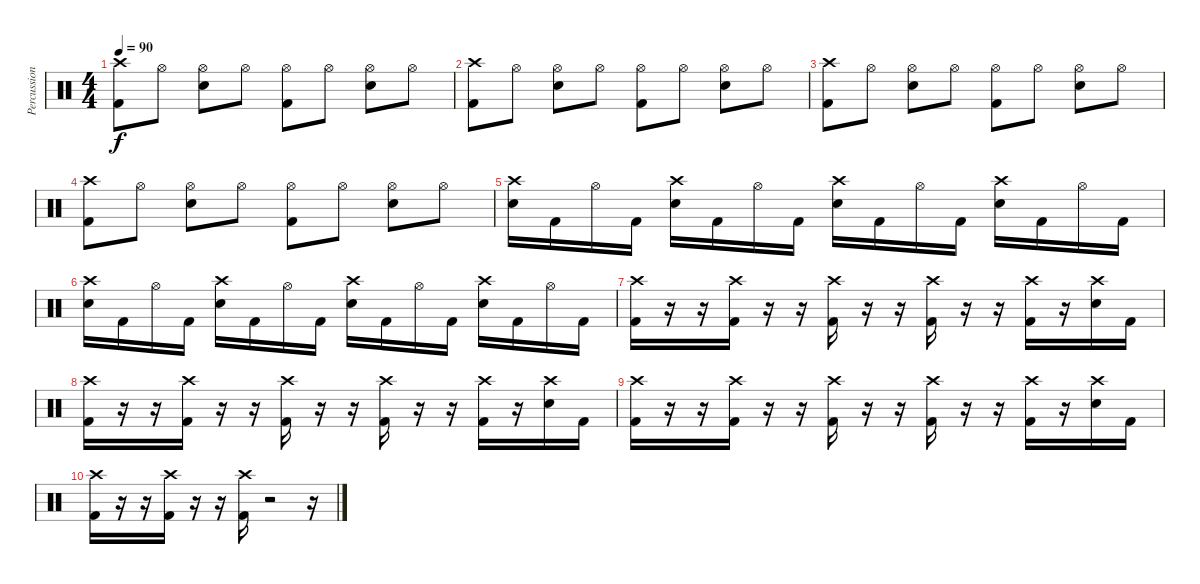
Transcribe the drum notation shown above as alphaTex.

\track ("Percussion" "Percussion") {instrument percussion}
\staff {score}
\articulation defaults
\ts (4 4)
\tempo 90
\clef neutral
\ks c
("Crash high (hit)" "Kick (hit) 2").8{dy f} "Hi-Hat (open)".8 ("Hi-Hat (open)" "Snare (hit) 2").8 "Hi-Hat (open)".8 ("Hi-Hat (open)" "Kick (hit) 2").8 "Hi-Hat (open)".8 ("Hi-Hat (open)" "Snare (hit) 2").8 "Hi-Hat (open)".8 |
("Crash high (hit)" "Kick (hit) 2").8 "Hi-Hat (open)".8 ("Hi-Hat (open)" "Snare (hit) 2").8 "Hi-Hat (open)".8 ("Hi-Hat (open)" "Kick (hit) 2").8 "Hi-Hat (open)".8 ("Hi-Hat (open)" "Snare (hit) 2").8 "Hi-Hat (open)".8 |
("Crash high (hit)" "Kick (hit) 2").8 "Hi-Hat (open)".8 ("Hi-Hat (open)" "Snare (hit) 2").8 "Hi-Hat (open)".8 ("Hi-Hat (open)" "Kick (hit) 2").8 "Hi-Hat (open)".8 ("Hi-Hat (open)" "Snare (hit) 2").8 "Hi-Hat (open)".8 |
("Crash high (hit)" "Kick (hit) 2").8 "Hi-Hat (open)".8 ("Hi-Hat (open)" "Snare (hit) 2").8 "Hi-Hat (open)".8 ("Hi-Hat (open)" "Kick (hit) 2").8 "Hi-Hat (open)".8 ("Hi-Hat (open)" "Snare (hit) 2").8 "Hi-Hat (open)".8 |
("Crash high (hit)" "Snare (hit) 2").16 "Kick (hit) 2".16 "Hi-Hat (open)".16 "Kick (hit) 2".16 ("Crash high (hit)" "Snare (hit) 2").16 "Kick (hit) 2".16 "Hi-Hat (open)".16 "Kick (hit) 2".16 ("Crash high (hit)" "Snare (hit) 2").16 "Kick (hit) 2".16 "Hi-Hat (open)".16 "Kick (hit) 2".16 ("Crash high (hit)" "Snare (hit) 2").16 "Kick (hit) 2".16 "Hi-Hat (open)".16 "Kick (hit) 2".16 |
("Crash high (hit)" "Snare (hit) 2").16 "Kick (hit) 2".16 "Hi-Hat (open)".16 "Kick (hit) 2".16 ("Crash high (hit)" "Snare (hit) 2").16 "Kick (hit) 2".16 "Hi-Hat (open)".16 "Kick (hit) 2".16 ("Crash high (hit)" "Snare (hit) 2").16 "Kick (hit) 2".16 "Hi-Hat (open)".16 "Kick (hit) 2".16 ("Crash high (hit)" "Snare (hit) 2").16 "Kick (hit) 2".16 "Hi-Hat (open)".16 "Kick (hit) 2".16 |
("Crash high (hit)" "Kick (hit) 2").16 r.16 r.16 ("Crash high (hit)" "Kick (hit) 2").16 r.16 r.16 ("Crash high (hit)" "Kick (hit) 2").16 r.16 r.16 ("Crash high (hit)" "Kick (hit) 2").16 r.16 r.16 ("Crash high (hit)" "Kick (hit) 2").16 r.16 ("Crash high (hit)" "Snare (hit) 2").16 "Kick (hit) 2".16 |
("Crash high (hit)" "Kick (hit) 2").16 r.16 r.16 ("Crash high (hit)" "Kick (hit) 2").16 r.16 r.16 ("Crash high (hit)" "Kick (hit) 2").16 r.16 r.16 ("Crash high (hit)" "Kick (hit) 2").16 r.16 r.16 ("Crash high (hit)" "Kick (hit) 2").16 r.16 ("Crash high (hit)" "Snare (hit) 2").16 "Kick (hit) 2".16 |
("Crash high (hit)" "Kick (hit) 2").16 r.16 r.16 ("Crash high (hit)" "Kick (hit) 2").16 r.16 r.16 ("Crash high (hit)" "Kick (hit) 2").16 r.16 r.16 ("Crash high (hit)" "Kick (hit) 2").16 r.16 r.16 ("Crash high (hit)" "Kick (hit) 2").16 r.16 ("Crash high (hit)" "Snare (hit) 2").16 "Kick (hit) 2".16 |
("Crash high (hit)" "Kick (hit) 2").16 r.16 r.16 ("Crash high (hit)" "Kick (hit) 2").16 r.16 r.16 ("Crash high (hit)" "Kick (hit) 2").16 r.2 r.16
